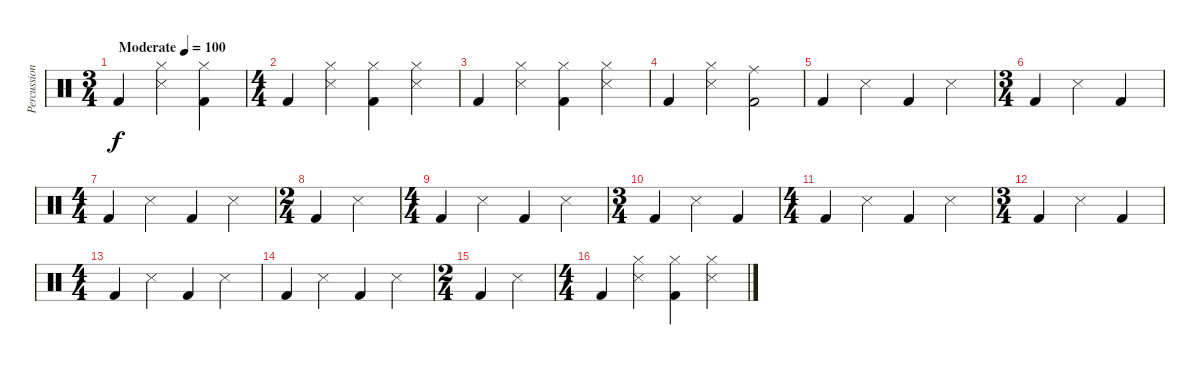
\track ("Percussion" "Percussion") {instrument percussion}
\staff {score}
\articulation defaults
\ts (3 4)
\tempo (100 "Moderate")
\clef neutral
\ks c "Kick (hit) 2".4{dy f}
("Hi-Hat (closed)" "Snare (side stick) 3").4 ("Hi-Hat (closed)" "Kick (hit) 2").4 |
\ts (4 4)
"Kick (hit) 2".4 ("Hi-Hat (closed)" "Snare (side stick) 3").4 ("Hi-Hat (closed)" "Kick (hit) 2").4 ("Hi-Hat (closed)" "Snare (side stick) 3").4 |
"Kick (hit) 2".4 ("Hi-Hat (closed)" "Snare (side stick) 3").4 ("Hi-Hat (closed)" "Kick (hit) 2").4 ("Hi-Hat (closed)" "Snare (side stick) 3").4 |
"Kick (hit) 2".4 ("Hi-Hat (closed)" "Snare (side stick) 3").4 ("Ride (middle)" "Kick (hit) 2").2 |
"Kick (hit) 2".4 "Snare (side stick) 3".4 "Kick (hit) 2".4 "Snare (side stick) 3".4 |
\ts (3 4)
"Kick (hit) 2".4 "Snare (side stick) 3".4 "Kick (hit) 2".4 |
\ts (4 4)
"Kick (hit) 2".4 "Snare (side stick) 3".4 "Kick (hit) 2".4 "Snare (side stick) 3".4 |
\ts (2 4)
"Kick (hit) 2".4 "Snare (side stick) 3".4 |
\ts (4 4)
"Kick (hit) 2".4 "Snare (side stick) 3".4 "Kick (hit) 2".4 "Snare (side stick) 3".4 |
\ts (3 4)
"Kick (hit) 2".4 "Snare (side stick) 3".4 "Kick (hit) 2".4 |
\ts (4 4)
"Kick (hit) 2".4 "Snare (side stick) 3".4 "Kick (hit) 2".4 "Snare (side stick) 3".4 |
\ts (3 4)
"Kick (hit) 2".4 "Snare (side stick) 3".4 "Kick (hit) 2".4 |
\ts (4 4)
"Kick (hit) 2".4 "Snare (side stick) 3".4 "Kick (hit) 2".4 "Snare (side stick) 3".4 |
"Kick (hit) 2".4 "Snare (side stick) 3".4 "Kick (hit) 2".4 "Snare (side stick) 3".4 |
\ts (2 4)
"Kick (hit) 2".4 "Snare (side stick) 3".4 |
\ts (4 4)
"Kick (hit) 2".4 ("Hi-Hat (closed)" "Snare (side stick) 3").4 ("Hi-Hat (closed)" "Kick (hit) 2").4 ("Hi-Hat (closed)" "Snare (side stick) 3").4
